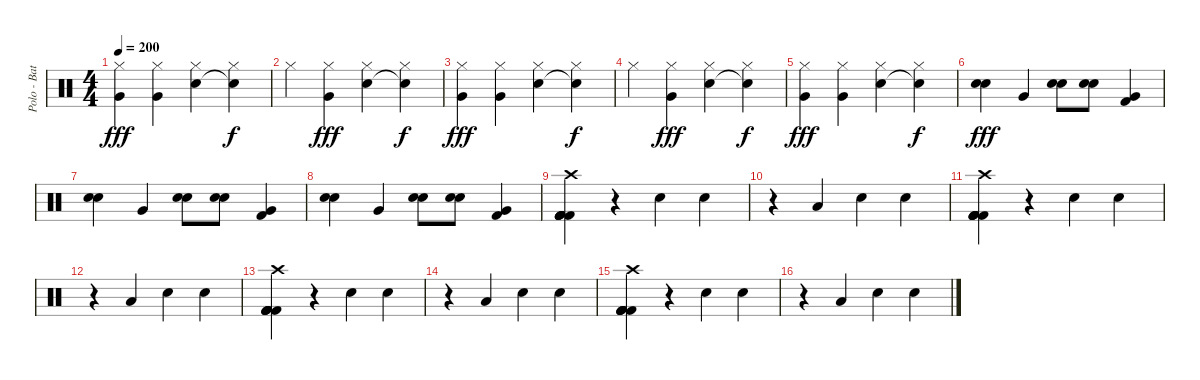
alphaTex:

\track ("Polo - Batería" "Polo - Bat") {instrument percussion}
\staff {score}
\articulation defaults
\ts (4 4)
\tempo 200
\clef neutral
\ks c
("Hi-Hat (closed)" "Very Low Tom (hit)").4{dy fff} ("Hi-Hat (closed)" "Very Low Tom (hit)").4 ("Hi-Hat (closed)" "Electric Snare (hit)").4 ("Hi-Hat (closed)" "Snare (hit)"{t}).4{dy f} |
"Hi-Hat (closed)".4 ("Hi-Hat (closed)" "Very Low Tom (hit)").4{dy fff} ("Hi-Hat (closed)" "Electric Snare (hit)").4 ("Hi-Hat (closed)" "Snare (hit)"{t}).4{dy f} |
("Hi-Hat (closed)" "Very Low Tom (hit)").4{dy fff} ("Hi-Hat (closed)" "Very Low Tom (hit)").4 ("Hi-Hat (closed)" "Electric Snare (hit)").4 ("Hi-Hat (closed)" "Snare (hit)"{t}).4{dy f} |
"Hi-Hat (closed)".4 ("Hi-Hat (closed)" "Very Low Tom (hit)").4{dy fff} ("Hi-Hat (closed)" "Electric Snare (hit)").4 ("Hi-Hat (closed)" "Snare (hit)"{t}).4{dy f} |
("Hi-Hat (closed)" "Very Low Tom (hit)").4{dy fff} ("Hi-Hat (closed)" "Very Low Tom (hit)").4 ("Hi-Hat (closed)" "Electric Snare (hit)").4 ("Hi-Hat (closed)" "Snare (hit)"{t}).4{dy f} |
("Electric Snare (hit)" "Snare (hit) 2").4{dy fff} "Very Low Tom (hit)".4 ("Hand Clap (hit)" "Electric Snare (hit)").8 ("Hand Clap (hit)" "Electric Snare (hit)").8 ("Kick (hit) 2" "Very Low Tom (hit)").4 |
("Electric Snare (hit)" "Snare (hit) 2").4 "Very Low Tom (hit)".4 ("Hand Clap (hit)" "Electric Snare (hit)").8 ("Hand Clap (hit)" "Electric Snare (hit)").8 ("Kick (hit) 2" "Very Low Tom (hit)").4 |
("Electric Snare (hit)" "Snare (hit) 2").4 "Very Low Tom (hit)".4 ("Hand Clap (hit)" "Electric Snare (hit)").8 ("Hand Clap (hit)" "Electric Snare (hit)").8 ("Kick (hit) 2" "Very Low Tom (hit)").4 |
("Kick (hit) 2" "Kick (hit) 2" "Kick (hit) 2" "Kick (hit) 2" "Kick (hit) 2" "Crash high (hit)").4 r.4 "Electric Snare (hit)".4 "Electric Snare (hit)".4 |
r.4 "Low Floor Tom (hit)".4 "Electric Snare (hit)".4 "Electric Snare (hit)".4 |
("Kick (hit) 2" "Kick (hit) 2" "Kick (hit) 2" "Kick (hit) 2" "Kick (hit) 2" "Crash high (hit)").4 r.4 "Electric Snare (hit)".4 "Electric Snare (hit)".4 |
r.4 "Low Floor Tom (hit)".4 "Electric Snare (hit)".4 "Electric Snare (hit)".4 |
("Kick (hit) 2" "Kick (hit) 2" "Kick (hit) 2" "Kick (hit) 2" "Kick (hit) 2" "Crash high (hit)").4 r.4 "Electric Snare (hit)".4 "Electric Snare (hit)".4 |
r.4 "Low Floor Tom (hit)".4 "Electric Snare (hit)".4 "Electric Snare (hit)".4 |
("Kick (hit) 2" "Kick (hit) 2" "Kick (hit) 2" "Kick (hit) 2" "Kick (hit) 2" "Crash high (hit)").4 r.4 "Electric Snare (hit)".4 "Electric Snare (hit)".4 |
r.4 "Low Floor Tom (hit)".4 "Electric Snare (hit)".4 "Electric Snare (hit)".4
